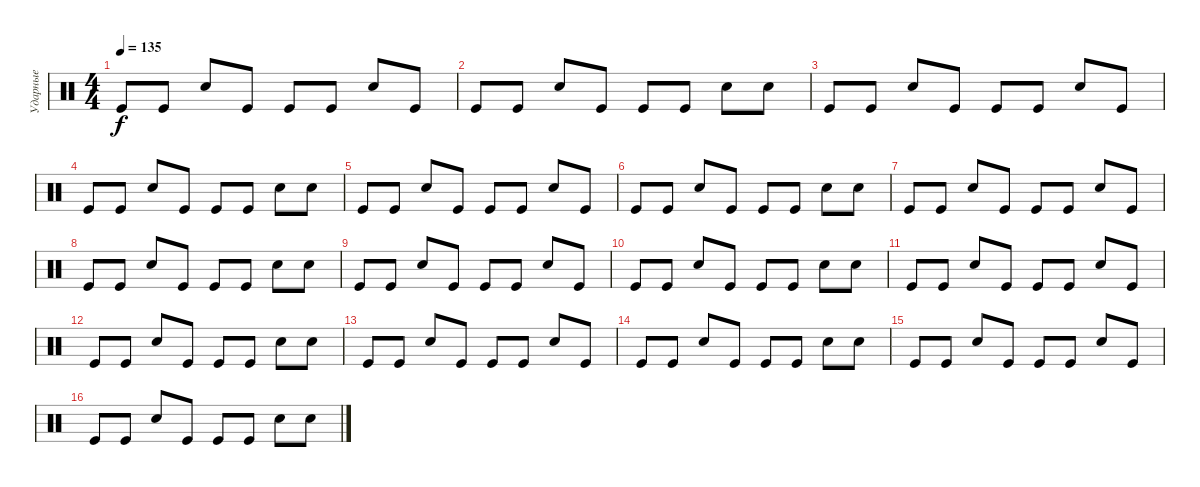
\track ("Ударные" "Ударные") {instrument percussion}
\staff {score}
\articulation defaults
\ts (4 4)
\tempo 135
\clef neutral
\ks c "Kick (hit)".8{dy f} "Kick (hit)".8 "Snare (hit) 2".8 "Kick (hit)".8 "Kick (hit)".8 "Kick (hit)".8 "Snare (hit) 2".8 "Kick (hit)".8
|
"Kick (hit)".8 "Kick (hit)".8 "Snare (hit) 2".8 "Kick (hit)".8 "Kick (hit)".8 "Kick (hit)".8 "Snare (hit) 2".8 "Snare (hit) 2".8 |
"Kick (hit)".8 "Kick (hit)".8 "Snare (hit) 2".8 "Kick (hit)".8 "Kick (hit)".8 "Kick (hit)".8 "Snare (hit) 2".8 "Kick (hit)".8 |
"Kick (hit)".8 "Kick (hit)".8 "Snare (hit) 2".8 "Kick (hit)".8 "Kick (hit)".8 "Kick (hit)".8 "Snare (hit) 2".8 "Snare (hit) 2".8 |
"Kick (hit)".8 "Kick (hit)".8 "Snare (hit) 2".8 "Kick (hit)".8 "Kick (hit)".8 "Kick (hit)".8 "Snare (hit) 2".8 "Kick (hit)".8 |
"Kick (hit)".8 "Kick (hit)".8 "Snare (hit) 2".8 "Kick (hit)".8 "Kick (hit)".8 "Kick (hit)".8 "Snare (hit) 2".8 "Snare (hit) 2".8 |
"Kick (hit)".8 "Kick (hit)".8 "Snare (hit) 2".8 "Kick (hit)".8 "Kick (hit)".8 "Kick (hit)".8 "Snare (hit) 2".8 "Kick (hit)".8 |
"Kick (hit)".8 "Kick (hit)".8 "Snare (hit) 2".8 "Kick (hit)".8 "Kick (hit)".8 "Kick (hit)".8 "Snare (hit) 2".8 "Snare (hit) 2".8 |
"Kick (hit)".8 "Kick (hit)".8 "Snare (hit) 2".8 "Kick (hit)".8 "Kick (hit)".8 "Kick (hit)".8 "Snare (hit) 2".8 "Kick (hit)".8 |
"Kick (hit)".8 "Kick (hit)".8 "Snare (hit) 2".8 "Kick (hit)".8 "Kick (hit)".8 "Kick (hit)".8 "Snare (hit) 2".8 "Snare (hit) 2".8 |
"Kick (hit)".8 "Kick (hit)".8 "Snare (hit) 2".8 "Kick (hit)".8 "Kick (hit)".8 "Kick (hit)".8 "Snare (hit) 2".8 "Kick (hit)".8 |
"Kick (hit)".8 "Kick (hit)".8 "Snare (hit) 2".8 "Kick (hit)".8 "Kick (hit)".8 "Kick (hit)".8 "Snare (hit) 2".8 "Snare (hit) 2".8 |
"Kick (hit)".8 "Kick (hit)".8 "Snare (hit) 2".8 "Kick (hit)".8 "Kick (hit)".8 "Kick (hit)".8 "Snare (hit) 2".8 "Kick (hit)".8 |
"Kick (hit)".8 "Kick (hit)".8 "Snare (hit) 2".8 "Kick (hit)".8 "Kick (hit)".8 "Kick (hit)".8 "Snare (hit) 2".8 "Snare (hit) 2".8 |
"Kick (hit)".8 "Kick (hit)".8 "Snare (hit) 2".8 "Kick (hit)".8 "Kick (hit)".8 "Kick (hit)".8 "Snare (hit) 2".8 "Kick (hit)".8 |
"Kick (hit)".8 "Kick (hit)".8 "Snare (hit) 2".8 "Kick (hit)".8 "Kick (hit)".8 "Kick (hit)".8 "Snare (hit) 2".8 "Snare (hit) 2".8
